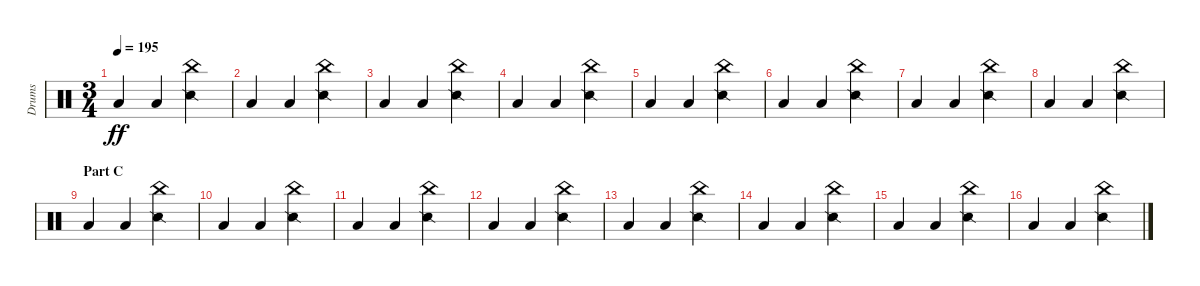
\track ("Drums" "Drums") {instrument percussion}
\staff {score}
\articulation defaults
\ts (3 4)
\tempo 195
\clef neutral
\ks c "Low Floor Tom (hit)".4{dy ff} "Low Floor Tom (hit)".4
("China (hit)" "Snare (side stick) 2").4 |
"Low Floor Tom (hit)".4 "Low Floor Tom (hit)".4 ("China (hit)" "Snare (side stick) 2").4 |
"Low Floor Tom (hit)".4 "Low Floor Tom (hit)".4 ("China (hit)" "Snare (side stick) 2").4 |
"Low Floor Tom (hit)".4 "Low Floor Tom (hit)".4 ("China (hit)" "Snare (side stick) 2").4 |
"Low Floor Tom (hit)".4 "Low Floor Tom (hit)".4 ("China (hit)" "Snare (side stick) 2").4 |
"Low Floor Tom (hit)".4 "Low Floor Tom (hit)".4 ("China (hit)" "Snare (side stick) 2").4 |
"Low Floor Tom (hit)".4 "Low Floor Tom (hit)".4 ("China (hit)" "Snare (side stick) 2").4 |
"Low Floor Tom (hit)".4 "Low Floor Tom (hit)".4 ("China (hit)" "Snare (side stick) 2").4 |
\section ("" "Part C")
"Low Floor Tom (hit)".4 "Low Floor Tom (hit)".4 ("China (hit)" "Snare (side stick) 2").4 |
"Low Floor Tom (hit)".4 "Low Floor Tom (hit)".4 ("China (hit)" "Snare (side stick) 2").4 |
"Low Floor Tom (hit)".4 "Low Floor Tom (hit)".4 ("China (hit)" "Snare (side stick) 2").4 |
"Low Floor Tom (hit)".4 "Low Floor Tom (hit)".4 ("China (hit)" "Snare (side stick) 2").4 |
"Low Floor Tom (hit)".4 "Low Floor Tom (hit)".4 ("China (hit)" "Snare (side stick) 2").4 |
"Low Floor Tom (hit)".4 "Low Floor Tom (hit)".4 ("China (hit)" "Snare (side stick) 2").4 |
"Low Floor Tom (hit)".4 "Low Floor Tom (hit)".4 ("China (hit)" "Snare (side stick) 2").4 |
"Low Floor Tom (hit)".4 "Low Floor Tom (hit)".4 ("China (hit)" "Snare (side stick) 2").4
